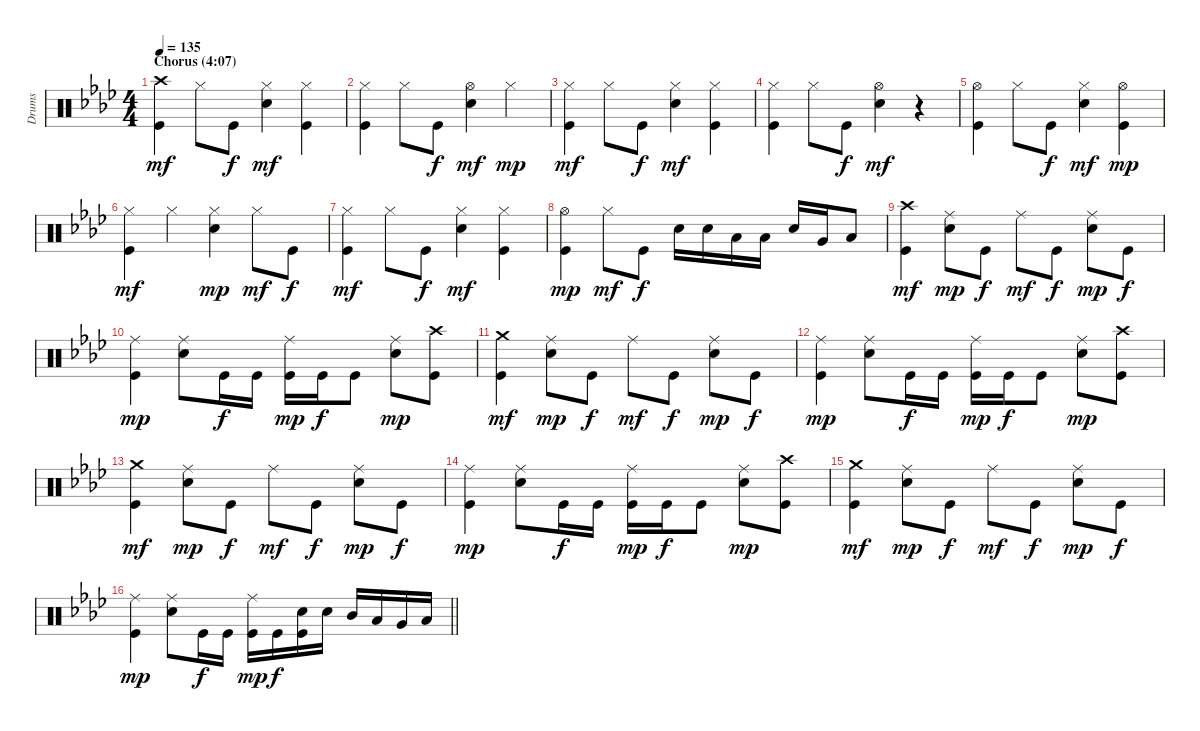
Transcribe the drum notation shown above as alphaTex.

\track ("Drums" "Drums") {instrument percussion}
\staff {score}
\articulation defaults
\ts (4 4)
\section ("" "Chorus (4:07)")
\tempo 135
\clef neutral
\ks fminor
("Crash high (hit)" "Kick (hit)").4{dy mf} "Hi-Hat (closed)".8 "Kick (hit)".8{dy f} ("Hi-Hat (closed)" "Snare (hit) 2").4{dy mf} ("Hi-Hat (closed)" "Kick (hit)").4 |
("Hi-Hat (closed)" "Kick (hit)").4 "Hi-Hat (closed)".8 "Kick (hit)".8{dy f} ("Hi-Hat (open)" "Snare (hit) 2").4{dy mf} "Hi-Hat (closed)".4{dy mp} |
("Hi-Hat (closed)" "Kick (hit)").4{dy mf} "Hi-Hat (closed)".8 "Kick (hit)".8{dy f} ("Hi-Hat (closed)" "Snare (hit) 2").4{dy mf} ("Hi-Hat (closed)" "Kick (hit)").4 |
("Hi-Hat (closed)" "Kick (hit)").4 "Hi-Hat (closed)".8 "Kick (hit)".8{dy f} ("Hi-Hat (open)" "Snare (hit) 2").4{dy mf} r.4 |
("Hi-Hat (open)" "Kick (hit)").4 "Hi-Hat (closed)".8 "Kick (hit)".8{dy f} ("Hi-Hat (closed)" "Snare (hit) 2").4{dy mf} ("Hi-Hat (open)" "Kick (hit)").4{dy mp} |
("Hi-Hat (closed)" "Kick (hit)").4{dy mf} "Hi-Hat (closed)".4 ("Hi-Hat (closed)" "Snare (hit) 2").4{dy mp} "Hi-Hat (closed)".8{dy mf} "Kick (hit)".8{dy f} |
("Hi-Hat (closed)" "Kick (hit)").4{dy mf} "Hi-Hat (closed)".8 "Kick (hit)".8{dy f} ("Hi-Hat (closed)" "Snare (hit) 2").4{dy mf} ("Hi-Hat (closed)" "Kick (hit)").4 |
("Hi-Hat (open)" "Kick (hit)").4{dy mp} "Hi-Hat (closed)".8{dy mf} "Kick (hit)".8{dy f} "Snare (hit) 2".16 "Snare (hit) 2".16 "Low Tom (hit)".16 "Low Tom (hit)".16 "Snare (hit) 2".16 "Very Low Tom (hit)".16 "Low Floor Tom (hit)".8 |
("Crash high (hit)" "Kick (hit)").4{dy mf} ("Ride (middle)" "Snare (hit) 2").8{dy mp} "Kick (hit)".8{dy f} "Ride (middle)".8{dy mf} "Kick (hit)".8{dy f} ("Ride (middle)" "Snare (hit) 2").8{dy mp} "Kick (hit)".8{dy f} |
("Ride (middle)" "Kick (hit)").4{dy mp} ("Ride (middle)" "Snare (hit) 2").8 "Kick (hit)".16{dy f} "Kick (hit)".16 ("Ride (middle)" "Kick (hit)").16{dy mp} "Kick (hit)".16{dy f} "Kick (hit)".8 ("Ride (middle)" "Snare (hit) 2").8{dy mp} ("Crash high (hit)" "Kick (hit)").8 |
("Crash medium (hit)" "Kick (hit)").4{dy mf} ("Ride (middle)" "Snare (hit) 2").8{dy mp} "Kick (hit)".8{dy f} "Ride (middle)".8{dy mf} "Kick (hit)".8{dy f} ("Ride (middle)" "Snare (hit) 2").8{dy mp} "Kick (hit)".8{dy f} |
("Ride (middle)" "Kick (hit)").4{dy mp} ("Ride (middle)" "Snare (hit) 2").8 "Kick (hit)".16{dy f} "Kick (hit)".16 ("Ride (middle)" "Kick (hit)").16{dy mp} "Kick (hit)".16{dy f} "Kick (hit)".8 ("Ride (middle)" "Snare (hit) 2").8{dy mp} ("Crash high (hit)" "Kick (hit)").8 |
("Crash medium (hit)" "Kick (hit)").4{dy mf} ("Ride (middle)" "Snare (hit) 2").8{dy mp} "Kick (hit)".8{dy f} "Ride (middle)".8{dy mf} "Kick (hit)".8{dy f} ("Ride (middle)" "Snare (hit) 2").8{dy mp} "Kick (hit)".8{dy f} |
("Ride (middle)" "Kick (hit)").4{dy mp} ("Ride (middle)" "Snare (hit) 2").8 "Kick (hit)".16{dy f} "Kick (hit)".16 ("Ride (middle)" "Kick (hit)").16{dy mp} "Kick (hit)".16{dy f} "Kick (hit)".8 ("Ride (middle)" "Snare (hit) 2").8{dy mp} ("Crash high (hit)" "Kick (hit)").8 |
("Crash medium (hit)" "Kick (hit)").4{dy mf} ("Ride (middle)" "Snare (hit) 2").8{dy mp} "Kick (hit)".8{dy f} "Ride (middle)".8{dy mf} "Kick (hit)".8{dy f} ("Ride (middle)" "Snare (hit) 2").8{dy mp} "Kick (hit)".8{dy f} |
\barLineRight lightlight
("Ride (middle)" "Kick (hit)").4{dy mp} ("Ride (middle)" "Snare (hit) 2").8 "Kick (hit)".16{dy f} "Kick (hit)".16 ("Ride (middle)" "Kick (hit)").16{dy mp} "Kick (hit)".16{dy f} ("Snare (hit) 2" "Kick (hit)").16 "Snare (hit) 2".16 "Mid Tom (hit)".16 "Low Tom (hit)".16 "Very Low Tom (hit)".16 "Low Floor Tom (hit)".16
